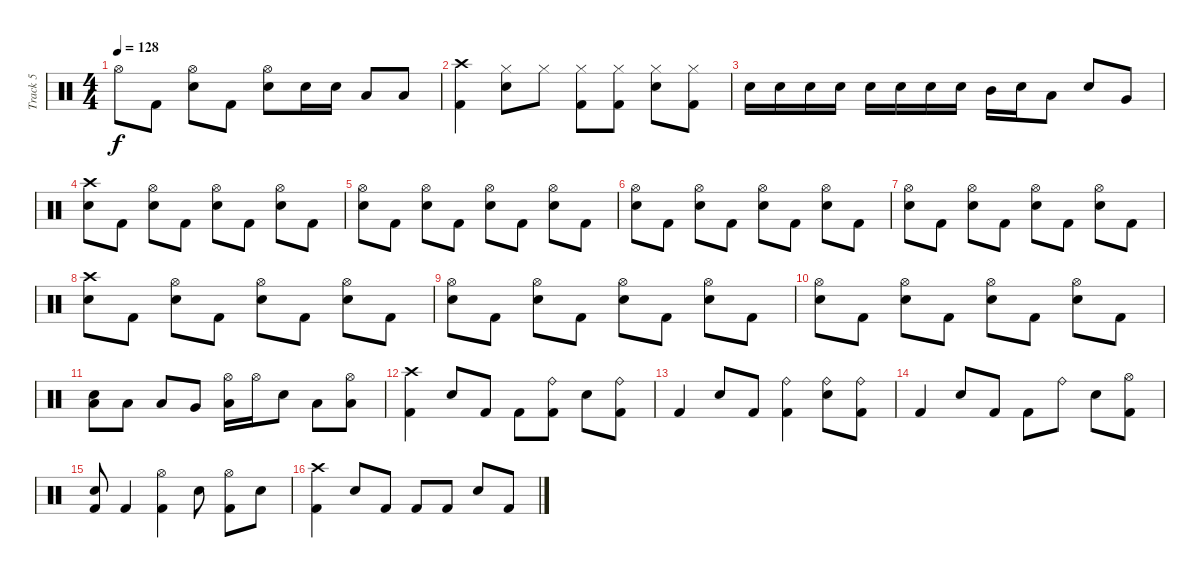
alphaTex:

\track ("Track 5" "Track 5") {instrument percussion}
\staff {score}
\articulation defaults
\ts (4 4)
\tempo 128
\clef neutral
\ks c "Hi-Hat (open)".8{dy f} "Kick (hit) 2".8
("Hi-Hat (open)" "Electric Snare (hit)").8 "Kick (hit) 2".8 ("Hi-Hat (open)" "Electric Snare (hit)").8 "Electric Snare (hit)".16 "Electric Snare (hit)".16 "Low Tom (hit)".8 "Low Tom (hit)".8 |
("Crash high (hit)" "Kick (hit) 2").4 ("Hi-Hat (closed)" "Electric Snare (hit)").8 "Hi-Hat (closed)".8 ("Hi-Hat (closed)" "Kick (hit) 2").8 ("Hi-Hat (closed)" "Kick (hit) 2").8 ("Hi-Hat (closed)" "Electric Snare (hit)").8 ("Hi-Hat (closed)" "Kick (hit) 2").8 |
"Electric Snare (hit)".16 "Electric Snare (hit)".16 "Electric Snare (hit)".16 "Electric Snare (hit)".16 "Electric Snare (hit)".16 "Electric Snare (hit)".16 "Electric Snare (hit)".16 "Electric Snare (hit)".16 "Mid Tom (hit)".16 "Electric Snare (hit)".16 "Low Tom (hit)".8 "Electric Snare (hit)".8 "Very Low Tom (hit)".8 |
("Crash high (hit)" "Electric Snare (hit)").8 "Kick (hit) 2".8 ("Hi-Hat (open)" "Electric Snare (hit)").8 "Kick (hit) 2".8 ("Hi-Hat (open)" "Electric Snare (hit)").8 "Kick (hit) 2".8 ("Hi-Hat (open)" "Electric Snare (hit)").8 "Kick (hit) 2".8 |
("Hi-Hat (open)" "Electric Snare (hit)").8 "Kick (hit) 2".8 ("Hi-Hat (open)" "Electric Snare (hit)").8 "Kick (hit) 2".8 ("Hi-Hat (open)" "Electric Snare (hit)").8 "Kick (hit) 2".8 ("Hi-Hat (open)" "Electric Snare (hit)").8 "Kick (hit) 2".8 |
("Hi-Hat (open)" "Electric Snare (hit)").8 "Kick (hit) 2".8 ("Hi-Hat (open)" "Electric Snare (hit)").8 "Kick (hit) 2".8 ("Hi-Hat (open)" "Electric Snare (hit)").8 "Kick (hit) 2".8 ("Hi-Hat (open)" "Electric Snare (hit)").8 "Kick (hit) 2".8 |
("Hi-Hat (open)" "Electric Snare (hit)").8 "Kick (hit) 2".8 ("Hi-Hat (open)" "Electric Snare (hit)").8 "Kick (hit) 2".8 ("Hi-Hat (open)" "Electric Snare (hit)").8 "Kick (hit) 2".8 ("Hi-Hat (open)" "Electric Snare (hit)").8 "Kick (hit) 2".8 |
("Crash high (hit)" "Electric Snare (hit)").8 "Kick (hit) 2".8 ("Hi-Hat (open)" "Electric Snare (hit)").8 "Kick (hit) 2".8 ("Hi-Hat (open)" "Electric Snare (hit)").8 "Kick (hit) 2".8 ("Hi-Hat (open)" "Electric Snare (hit)").8 "Kick (hit) 2".8 |
("Hi-Hat (open)" "Electric Snare (hit)").8 "Kick (hit) 2".8 ("Hi-Hat (open)" "Electric Snare (hit)").8 "Kick (hit) 2".8 ("Hi-Hat (open)" "Electric Snare (hit)").8 "Kick (hit) 2".8 ("Hi-Hat (open)" "Electric Snare (hit)").8 "Kick (hit) 2".8 |
("Hi-Hat (open)" "Electric Snare (hit)").8 "Kick (hit) 2".8 ("Hi-Hat (open)" "Electric Snare (hit)").8 "Kick (hit) 2".8 ("Hi-Hat (open)" "Electric Snare (hit)").8 "Kick (hit) 2".8 ("Hi-Hat (open)" "Electric Snare (hit)").8 "Kick (hit) 2".8 |
("Electric Snare (hit)" "Low Tom (hit)").8 "Low Tom (hit)".8 "Low Tom (hit)".8 "Very Low Tom (hit)".8 ("Hi-Hat (open)" "Low Tom (hit)").16 "Hi-Hat (open)".16 "Electric Snare (hit)".8 "Low Tom (hit)".8 ("Hi-Hat (open)" "Low Tom (hit)").8 |
("Crash high (hit)" "Kick (hit) 2").4 "Electric Snare (hit)".8 "Kick (hit) 2".8 "Kick (hit) 2".8 ("Ride (bell)" "Kick (hit) 2").8 "Electric Snare (hit)".8 ("Ride (bell)" "Kick (hit) 2").8 |
"Kick (hit) 2".4 "Electric Snare (hit)".8 "Kick (hit) 2".8 ("Ride (bell)" "Kick (hit) 2").4 ("Ride (bell)" "Electric Snare (hit)").8 ("Ride (bell)" "Kick (hit) 2").8 |
"Kick (hit) 2".4 "Electric Snare (hit)".8 "Kick (hit) 2".8 "Kick (hit) 2".8 "Ride (bell)".8 "Electric Snare (hit)".8 ("Hi-Hat (open)" "Kick (hit) 2").8 |
("Electric Snare (hit)" "Kick (hit) 2").8 "Kick (hit) 2".4 ("Hi-Hat (open)" "Kick (hit) 2").4 "Electric Snare (hit)".8 ("Hi-Hat (open)" "Kick (hit) 2").8 "Electric Snare (hit)".8 |
("Crash high (hit)" "Kick (hit) 2").4 "Electric Snare (hit)".8 "Kick (hit) 2".8 "Kick (hit) 2".8 "Kick (hit) 2".8 "Electric Snare (hit)".8 "Kick (hit) 2".8
